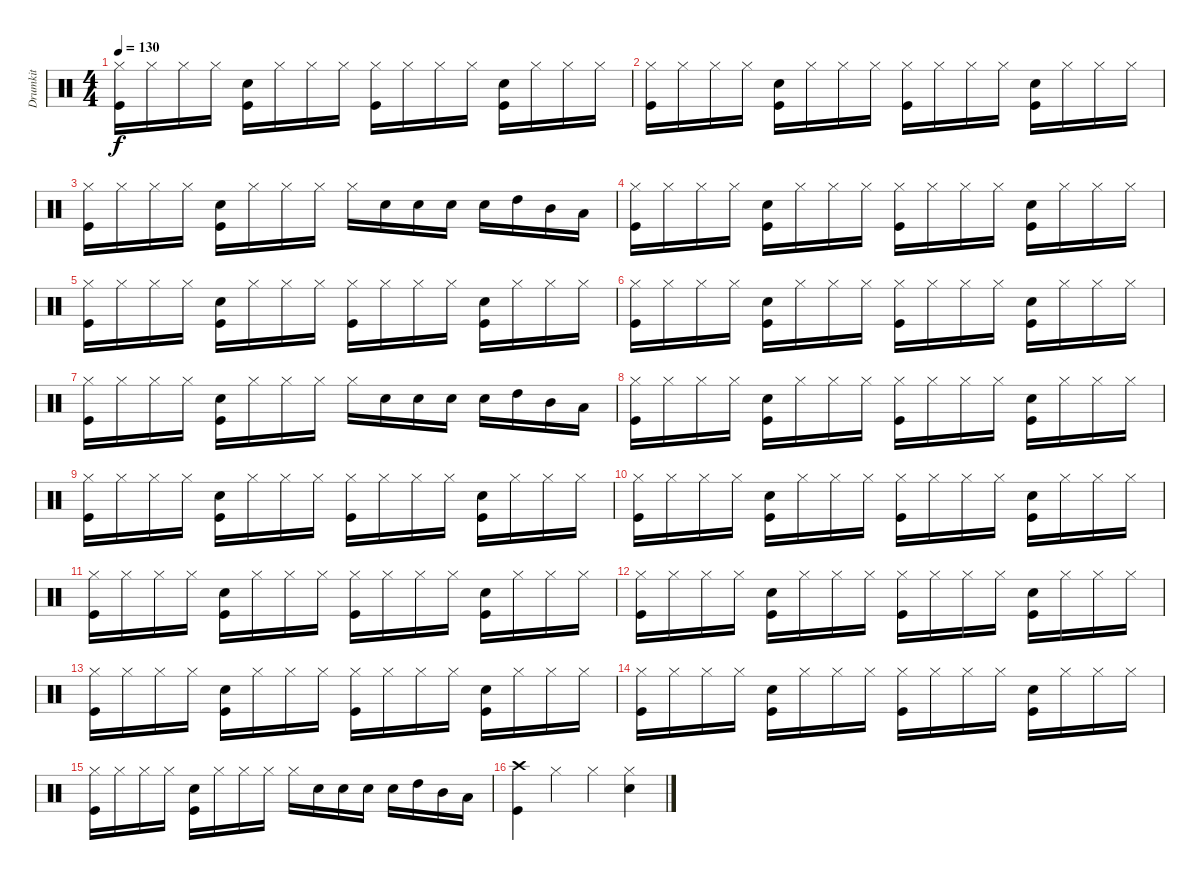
\track ("Drumkit" "Drumkit") {instrument percussion}
\staff {score}
\articulation defaults
\ts (4 4)
\tempo 130
\clef neutral
\ks c
("Hi-Hat (closed)" "Kick (hit)").16{dy f} "Hi-Hat (closed)".16 "Hi-Hat (closed)".16 "Hi-Hat (closed)".16 ("Snare (hit) 2" "Kick (hit)").16 "Hi-Hat (closed)".16 "Hi-Hat (closed)".16 "Hi-Hat (closed)".16 ("Hi-Hat (closed)" "Kick (hit)").16 "Hi-Hat (closed)".16 "Hi-Hat (closed)".16 "Hi-Hat (closed)".16 ("Snare (hit) 2" "Kick (hit)").16 "Hi-Hat (closed)".16 "Hi-Hat (closed)".16 "Hi-Hat (closed)".16 |
("Hi-Hat (closed)" "Kick (hit)").16 "Hi-Hat (closed)".16 "Hi-Hat (closed)".16 "Hi-Hat (closed)".16 ("Snare (hit) 2" "Kick (hit)").16 "Hi-Hat (closed)".16 "Hi-Hat (closed)".16 "Hi-Hat (closed)".16 ("Hi-Hat (closed)" "Kick (hit)").16 "Hi-Hat (closed)".16 "Hi-Hat (closed)".16 "Hi-Hat (closed)".16 ("Snare (hit) 2" "Kick (hit)").16 "Hi-Hat (closed)".16 "Hi-Hat (closed)".16 "Hi-Hat (closed)".16 |
("Hi-Hat (closed)" "Kick (hit)").16 "Hi-Hat (closed)".16 "Hi-Hat (closed)".16 "Hi-Hat (closed)".16 ("Snare (hit) 2" "Kick (hit)").16 "Hi-Hat (closed)".16 "Hi-Hat (closed)".16 "Hi-Hat (closed)".16 "Hi-Hat (closed)".16 "Snare (hit) 2".16 "Snare (hit) 2".16 "Snare (hit) 2".16 "Snare (hit) 2".16 "High Tom (hit)".16 "Mid Tom (hit)".16 "Low Tom (hit)".16 |
("Hi-Hat (closed)" "Kick (hit)").16 "Hi-Hat (closed)".16 "Hi-Hat (closed)".16 "Hi-Hat (closed)".16 ("Snare (hit) 2" "Kick (hit)").16 "Hi-Hat (closed)".16 "Hi-Hat (closed)".16 "Hi-Hat (closed)".16 ("Hi-Hat (closed)" "Kick (hit)").16 "Hi-Hat (closed)".16 "Hi-Hat (closed)".16 "Hi-Hat (closed)".16 ("Snare (hit) 2" "Kick (hit)").16 "Hi-Hat (closed)".16 "Hi-Hat (closed)".16 "Hi-Hat (closed)".16 |
("Hi-Hat (closed)" "Kick (hit)").16 "Hi-Hat (closed)".16 "Hi-Hat (closed)".16 "Hi-Hat (closed)".16 ("Snare (hit) 2" "Kick (hit)").16 "Hi-Hat (closed)".16 "Hi-Hat (closed)".16 "Hi-Hat (closed)".16 ("Hi-Hat (closed)" "Kick (hit)").16 "Hi-Hat (closed)".16 "Hi-Hat (closed)".16 "Hi-Hat (closed)".16 ("Snare (hit) 2" "Kick (hit)").16 "Hi-Hat (closed)".16 "Hi-Hat (closed)".16 "Hi-Hat (closed)".16 |
("Hi-Hat (closed)" "Kick (hit)").16 "Hi-Hat (closed)".16 "Hi-Hat (closed)".16 "Hi-Hat (closed)".16 ("Snare (hit) 2" "Kick (hit)").16 "Hi-Hat (closed)".16 "Hi-Hat (closed)".16 "Hi-Hat (closed)".16 ("Hi-Hat (closed)" "Kick (hit)").16 "Hi-Hat (closed)".16 "Hi-Hat (closed)".16 "Hi-Hat (closed)".16 ("Snare (hit) 2" "Kick (hit)").16 "Hi-Hat (closed)".16 "Hi-Hat (closed)".16 "Hi-Hat (closed)".16 |
("Hi-Hat (closed)" "Kick (hit)").16 "Hi-Hat (closed)".16 "Hi-Hat (closed)".16 "Hi-Hat (closed)".16 ("Snare (hit) 2" "Kick (hit)").16 "Hi-Hat (closed)".16 "Hi-Hat (closed)".16 "Hi-Hat (closed)".16 "Hi-Hat (closed)".16 "Snare (hit) 2".16 "Snare (hit) 2".16 "Snare (hit) 2".16 "Snare (hit) 2".16 "High Tom (hit)".16 "Mid Tom (hit)".16 "Low Tom (hit)".16 |
("Hi-Hat (closed)" "Kick (hit)").16 "Hi-Hat (closed)".16 "Hi-Hat (closed)".16 "Hi-Hat (closed)".16 ("Snare (hit) 2" "Kick (hit)").16 "Hi-Hat (closed)".16 "Hi-Hat (closed)".16 "Hi-Hat (closed)".16 ("Hi-Hat (closed)" "Kick (hit)").16 "Hi-Hat (closed)".16 "Hi-Hat (closed)".16 "Hi-Hat (closed)".16 ("Snare (hit) 2" "Kick (hit)").16 "Hi-Hat (closed)".16 "Hi-Hat (closed)".16 "Hi-Hat (closed)".16 |
("Hi-Hat (closed)" "Kick (hit)").16 "Hi-Hat (closed)".16 "Hi-Hat (closed)".16 "Hi-Hat (closed)".16 ("Snare (hit) 2" "Kick (hit)").16 "Hi-Hat (closed)".16 "Hi-Hat (closed)".16 "Hi-Hat (closed)".16 ("Hi-Hat (closed)" "Kick (hit)").16 "Hi-Hat (closed)".16 "Hi-Hat (closed)".16 "Hi-Hat (closed)".16 ("Snare (hit) 2" "Kick (hit)").16 "Hi-Hat (closed)".16 "Hi-Hat (closed)".16 "Hi-Hat (closed)".16 |
("Hi-Hat (closed)" "Kick (hit)").16 "Hi-Hat (closed)".16 "Hi-Hat (closed)".16 "Hi-Hat (closed)".16 ("Snare (hit) 2" "Kick (hit)").16 "Hi-Hat (closed)".16 "Hi-Hat (closed)".16 "Hi-Hat (closed)".16 ("Hi-Hat (closed)" "Kick (hit)").16 "Hi-Hat (closed)".16 "Hi-Hat (closed)".16 "Hi-Hat (closed)".16 ("Snare (hit) 2" "Kick (hit)").16 "Hi-Hat (closed)".16 "Hi-Hat (closed)".16 "Hi-Hat (closed)".16 |
("Hi-Hat (closed)" "Kick (hit)").16 "Hi-Hat (closed)".16 "Hi-Hat (closed)".16 "Hi-Hat (closed)".16 ("Snare (hit) 2" "Kick (hit)").16 "Hi-Hat (closed)".16 "Hi-Hat (closed)".16 "Hi-Hat (closed)".16 ("Hi-Hat (closed)" "Kick (hit)").16 "Hi-Hat (closed)".16 "Hi-Hat (closed)".16 "Hi-Hat (closed)".16 ("Snare (hit) 2" "Kick (hit)").16 "Hi-Hat (closed)".16 "Hi-Hat (closed)".16 "Hi-Hat (closed)".16 |
("Hi-Hat (closed)" "Kick (hit)").16 "Hi-Hat (closed)".16 "Hi-Hat (closed)".16 "Hi-Hat (closed)".16 ("Snare (hit) 2" "Kick (hit)").16 "Hi-Hat (closed)".16 "Hi-Hat (closed)".16 "Hi-Hat (closed)".16 ("Hi-Hat (closed)" "Kick (hit)").16 "Hi-Hat (closed)".16 "Hi-Hat (closed)".16 "Hi-Hat (closed)".16 ("Snare (hit) 2" "Kick (hit)").16 "Hi-Hat (closed)".16 "Hi-Hat (closed)".16 "Hi-Hat (closed)".16 |
("Hi-Hat (closed)" "Kick (hit)").16 "Hi-Hat (closed)".16 "Hi-Hat (closed)".16 "Hi-Hat (closed)".16 ("Snare (hit) 2" "Kick (hit)").16 "Hi-Hat (closed)".16 "Hi-Hat (closed)".16 "Hi-Hat (closed)".16 ("Hi-Hat (closed)" "Kick (hit)").16 "Hi-Hat (closed)".16 "Hi-Hat (closed)".16 "Hi-Hat (closed)".16 ("Snare (hit) 2" "Kick (hit)").16 "Hi-Hat (closed)".16 "Hi-Hat (closed)".16 "Hi-Hat (closed)".16 |
("Hi-Hat (closed)" "Kick (hit)").16 "Hi-Hat (closed)".16 "Hi-Hat (closed)".16 "Hi-Hat (closed)".16 ("Snare (hit) 2" "Kick (hit)").16 "Hi-Hat (closed)".16 "Hi-Hat (closed)".16 "Hi-Hat (closed)".16 ("Hi-Hat (closed)" "Kick (hit)").16 "Hi-Hat (closed)".16 "Hi-Hat (closed)".16 "Hi-Hat (closed)".16 ("Snare (hit) 2" "Kick (hit)").16 "Hi-Hat (closed)".16 "Hi-Hat (closed)".16 "Hi-Hat (closed)".16 |
("Hi-Hat (closed)" "Kick (hit)").16 "Hi-Hat (closed)".16 "Hi-Hat (closed)".16 "Hi-Hat (closed)".16 ("Snare (hit) 2" "Kick (hit)").16 "Hi-Hat (closed)".16 "Hi-Hat (closed)".16 "Hi-Hat (closed)".16 "Hi-Hat (closed)".16 "Snare (hit) 2".16 "Snare (hit) 2".16 "Snare (hit) 2".16 "Snare (hit) 2".16 "High Tom (hit)".16 "Mid Tom (hit)".16 "Low Tom (hit)".16 |
("Crash high (hit)" "Kick (hit)").4 "Hi-Hat (closed)".4 "Hi-Hat (closed)".4 ("Hi-Hat (closed)" "Snare (hit) 2").4
